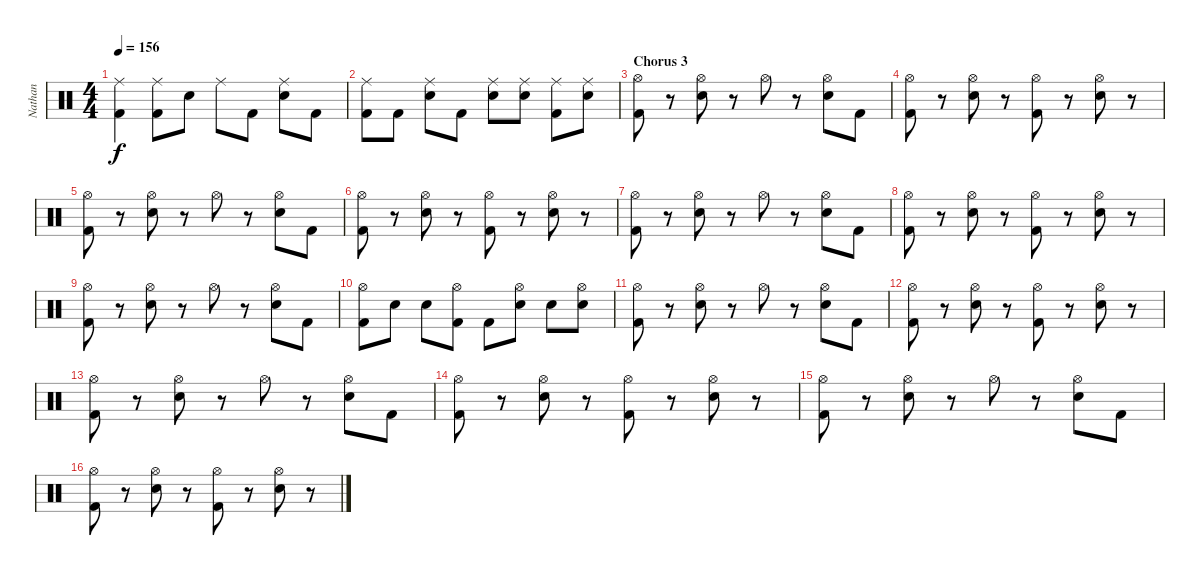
\track ("Nathan" "Nathan") {instrument percussion}
\staff {score}
\articulation defaults
\ts (4 4)
\tempo 156
\clef neutral
\ks c
("Ride (middle)" "Kick (hit) 2").4{dy f} ("Ride (middle)" "Kick (hit) 2").8 "Electric Snare (hit)".8 "Ride (middle)".8 "Kick (hit) 2".8 ("Ride (middle)" "Electric Snare (hit)").8 "Kick (hit) 2".8 |
("Ride (middle)" "Kick (hit) 2").8 "Kick (hit) 2".8 ("Ride (middle)" "Electric Snare (hit)").8 "Kick (hit) 2".8 ("Ride (middle)" "Electric Snare (hit)").8 ("Ride (middle)" "Electric Snare (hit)").8 ("Ride (middle)" "Kick (hit) 2").8 ("Ride (middle)" "Electric Snare (hit)").8 |
\section ("" "Chorus 3")
("Hi-Hat (open)" "Kick (hit) 2").8 r.8 ("Hi-Hat (open)" "Electric Snare (hit)").8 r.8 "Hi-Hat (open)".8 r.8 ("Hi-Hat (open)" "Electric Snare (hit)").8 "Kick (hit) 2".8 |
("Hi-Hat (open)" "Kick (hit) 2").8 r.8 ("Hi-Hat (open)" "Electric Snare (hit)").8 r.8 ("Hi-Hat (open)" "Kick (hit) 2").8 r.8 ("Hi-Hat (open)" "Electric Snare (hit)").8 r.8 |
("Hi-Hat (open)" "Kick (hit) 2").8 r.8 ("Hi-Hat (open)" "Electric Snare (hit)").8 r.8 "Hi-Hat (open)".8 r.8 ("Hi-Hat (open)" "Electric Snare (hit)").8 "Kick (hit) 2".8 |
("Hi-Hat (open)" "Kick (hit) 2").8 r.8 ("Hi-Hat (open)" "Electric Snare (hit)").8 r.8 ("Hi-Hat (open)" "Kick (hit) 2").8 r.8 ("Hi-Hat (open)" "Electric Snare (hit)").8 r.8 |
("Hi-Hat (open)" "Kick (hit) 2").8 r.8 ("Hi-Hat (open)" "Electric Snare (hit)").8 r.8 "Hi-Hat (open)".8 r.8 ("Hi-Hat (open)" "Electric Snare (hit)").8 "Kick (hit) 2".8 |
("Hi-Hat (open)" "Kick (hit) 2").8 r.8 ("Hi-Hat (open)" "Electric Snare (hit)").8 r.8 ("Hi-Hat (open)" "Kick (hit) 2").8 r.8 ("Hi-Hat (open)" "Electric Snare (hit)").8 r.8 |
("Hi-Hat (open)" "Kick (hit) 2").8 r.8 ("Hi-Hat (open)" "Electric Snare (hit)").8 r.8 "Hi-Hat (open)".8 r.8 ("Hi-Hat (open)" "Electric Snare (hit)").8 "Kick (hit) 2".8 |
("Hi-Hat (open)" "Kick (hit) 2").8 "Electric Snare (hit)".8 "Electric Snare (hit)".8 ("Hi-Hat (open)" "Kick (hit) 2").8 "Kick (hit) 2".8 ("Hi-Hat (open)" "Electric Snare (hit)").8 "Electric Snare (hit)".8 ("Hi-Hat (open)" "Electric Snare (hit)").8 |
("Hi-Hat (open)" "Kick (hit) 2").8 r.8 ("Hi-Hat (open)" "Electric Snare (hit)").8 r.8 "Hi-Hat (open)".8 r.8 ("Hi-Hat (open)" "Electric Snare (hit)").8 "Kick (hit) 2".8 |
("Hi-Hat (open)" "Kick (hit) 2").8 r.8 ("Hi-Hat (open)" "Electric Snare (hit)").8 r.8 ("Hi-Hat (open)" "Kick (hit) 2").8 r.8 ("Hi-Hat (open)" "Electric Snare (hit)").8 r.8 |
("Hi-Hat (open)" "Kick (hit) 2").8 r.8 ("Hi-Hat (open)" "Electric Snare (hit)").8 r.8 "Hi-Hat (open)".8 r.8 ("Hi-Hat (open)" "Electric Snare (hit)").8 "Kick (hit) 2".8 |
("Hi-Hat (open)" "Kick (hit) 2").8 r.8 ("Hi-Hat (open)" "Electric Snare (hit)").8 r.8 ("Hi-Hat (open)" "Kick (hit) 2").8 r.8 ("Hi-Hat (open)" "Electric Snare (hit)").8 r.8 |
("Hi-Hat (open)" "Kick (hit) 2").8 r.8 ("Hi-Hat (open)" "Electric Snare (hit)").8 r.8 "Hi-Hat (open)".8 r.8 ("Hi-Hat (open)" "Electric Snare (hit)").8 "Kick (hit) 2".8 |
("Hi-Hat (open)" "Kick (hit) 2").8 r.8 ("Hi-Hat (open)" "Electric Snare (hit)").8 r.8 ("Hi-Hat (open)" "Kick (hit) 2").8 r.8 ("Hi-Hat (open)" "Electric Snare (hit)").8 r.8
